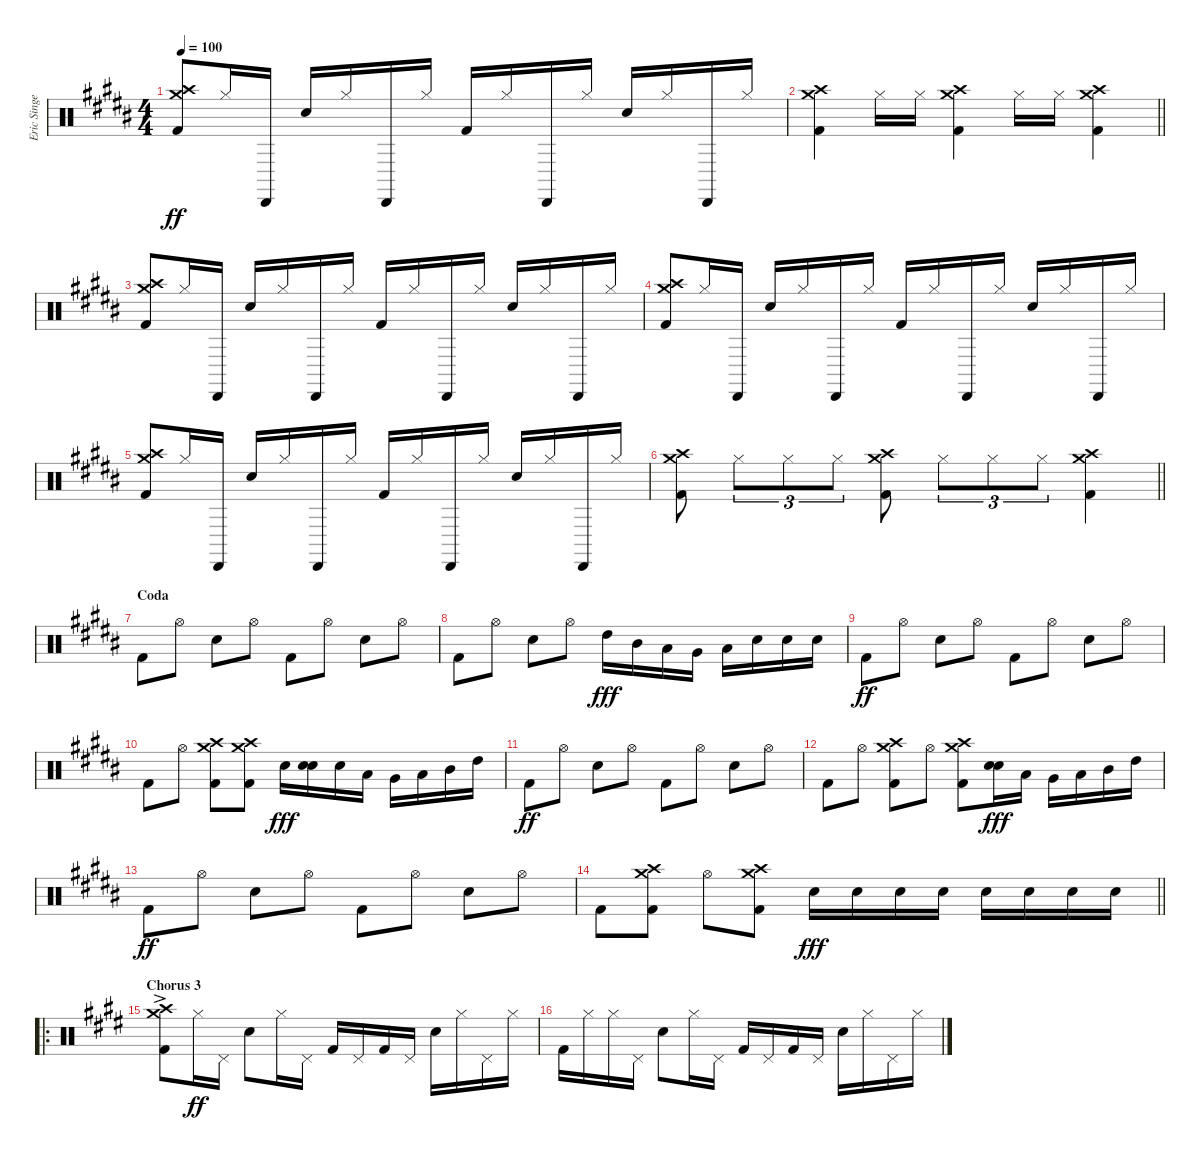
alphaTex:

\track ("Eric Singer" "Eric Singe") {instrument percussion}
\staff {score}
\articulation defaults
\ts (4 4)
\tempo 100
\clef neutral
\ks b
("Crash medium (hit)" "Crash high (hit)" "Kick (hit) 2").8{dy ff} "Hi-Hat (closed)".16 "Cabasa (hit)".16 "Snare (hit) 2".16 "Hi-Hat (closed)".16 "Cabasa (hit)".16 "Hi-Hat (closed)".16 "Kick (hit) 2".16 "Hi-Hat (closed)".16 "Cabasa (hit)".16 "Hi-Hat (closed)".16 "Snare (hit) 2".16 "Hi-Hat (closed)".16 "Cabasa (hit)".16 "Hi-Hat (closed)".16 |
\barLineRight lightlight
("Crash medium (hit)" "Crash high (hit)" "Kick (hit) 2").4 "Hi-Hat (closed)".16 "Hi-Hat (closed)".16 ("Crash medium (hit)" "Crash high (hit)" "Kick (hit) 2").4 "Hi-Hat (closed)".16 "Hi-Hat (closed)".16 ("Crash medium (hit)" "Crash high (hit)" "Kick (hit) 2").4 |
("Crash medium (hit)" "Crash high (hit)" "Kick (hit) 2").8 "Hi-Hat (closed)".16 "Cabasa (hit)".16 "Snare (hit) 2".16 "Hi-Hat (closed)".16 "Cabasa (hit)".16 "Hi-Hat (closed)".16 "Kick (hit) 2".16 "Hi-Hat (closed)".16 "Cabasa (hit)".16 "Hi-Hat (closed)".16 "Snare (hit) 2".16 "Hi-Hat (closed)".16 "Cabasa (hit)".16 "Hi-Hat (closed)".16 |
("Crash medium (hit)" "Crash high (hit)" "Kick (hit) 2").8 "Hi-Hat (closed)".16 "Cabasa (hit)".16 "Snare (hit) 2".16 "Hi-Hat (closed)".16 "Cabasa (hit)".16 "Hi-Hat (closed)".16 "Kick (hit) 2".16 "Hi-Hat (closed)".16 "Cabasa (hit)".16 "Hi-Hat (closed)".16 "Snare (hit) 2".16 "Hi-Hat (closed)".16 "Cabasa (hit)".16 "Hi-Hat (closed)".16 |
("Crash medium (hit)" "Crash high (hit)" "Kick (hit) 2").8 "Hi-Hat (closed)".16 "Cabasa (hit)".16 "Snare (hit) 2".16 "Hi-Hat (closed)".16 "Cabasa (hit)".16 "Hi-Hat (closed)".16 "Kick (hit) 2".16 "Hi-Hat (closed)".16 "Cabasa (hit)".16 "Hi-Hat (closed)".16 "Snare (hit) 2".16 "Hi-Hat (closed)".16 "Cabasa (hit)".16 "Hi-Hat (closed)".16 |
\barLineRight lightlight
("Crash medium (hit)" "Crash high (hit)" "Kick (hit) 2").8 "Hi-Hat (closed)".8{tu (3 2)} "Hi-Hat (closed)".8{tu (3 2)} "Hi-Hat (closed)".8{tu (3 2)} ("Crash medium (hit)" "Crash high (hit)" "Kick (hit) 2").8 "Hi-Hat (closed)".8{tu (3 2)} "Hi-Hat (closed)".8{tu (3 2)} "Hi-Hat (closed)".8{tu (3 2)} ("Crash medium (hit)" "Crash high (hit)" "Kick (hit) 2").4 |
\section ("" "Coda")
"Kick (hit) 2".8 "Hi-Hat (open)".8 "Snare (hit) 2".8 "Hi-Hat (open)".8 "Kick (hit) 2".8 "Hi-Hat (open)".8 "Snare (hit) 2".8 "Hi-Hat (open)".8 |
"Kick (hit) 2".8 "Hi-Hat (open)".8 "Snare (hit) 2".8 "Hi-Hat (open)".8 "High Tom (hit)".16{dy fff} "Mid Tom (hit)".16 "Low Tom (hit)".16 "Very Low Tom (hit)".16 "Low Floor Tom (hit)".16 "Snare (hit) 2".16 "Snare (hit) 2".16 "Snare (hit) 2".16 |
"Kick (hit) 2".8{dy ff} "Hi-Hat (open)".8 "Snare (hit) 2".8 "Hi-Hat (open)".8 "Kick (hit) 2".8 "Hi-Hat (open)".8 "Snare (hit) 2".8 "Hi-Hat (open)".8 |
"Kick (hit) 2".8 "Hi-Hat (open)".8 ("Crash medium (hit)" "Crash high (hit)" "Kick (hit) 2").8 ("Crash medium (hit)" "Crash high (hit)" "Kick (hit) 2").8 "Snare (hit) 2".16{dy fff} ("Electric Snare (hit)" "Snare (hit) 2").16 "Snare (hit) 2".16 "Low Floor Tom (hit)".16 "Very Low Tom (hit)".16 "Low Tom (hit)".16 "Mid Tom (hit)".16 "High Tom (hit)".16 |
"Kick (hit) 2".8{dy ff} "Hi-Hat (open)".8 "Snare (hit) 2".8 "Hi-Hat (open)".8 "Kick (hit) 2".8 "Hi-Hat (open)".8 "Snare (hit) 2".8 "Hi-Hat (open)".8 |
"Kick (hit) 2".8 "Hi-Hat (open)".8 ("Crash medium (hit)" "Crash high (hit)" "Kick (hit) 2").8 "Hi-Hat (open)".8 ("Crash medium (hit)" "Crash high (hit)" "Kick (hit) 2").8 ("Electric Snare (hit)" "Snare (hit) 2").16{dy fff} "Low Floor Tom (hit)".16 "Very Low Tom (hit)".16 "Low Tom (hit)".16 "Mid Tom (hit)".16 "High Tom (hit)".16 |
"Kick (hit) 2".8{dy ff} "Hi-Hat (open)".8 "Snare (hit) 2".8 "Hi-Hat (open)".8 "Kick (hit) 2".8 "Hi-Hat (open)".8 "Snare (hit) 2".8 "Hi-Hat (open)".8 |
\barLineRight lightlight "Kick (hit) 2".8
("Crash medium (hit)" "Crash high (hit)" "Kick (hit) 2").8 "Hi-Hat (open)".8 ("Crash medium (hit)" "Crash high (hit)" "Kick (hit) 2").8 "Snare (hit) 2".16{dy fff} "Snare (hit) 2".16 "Snare (hit) 2".16 "Snare (hit) 2".16 "Snare (hit) 2".16 "Snare (hit) 2".16 "Snare (hit) 2".16 "Snare (hit) 2".16 |
\ro
\section ("" "Chorus 3")
\ks e
("Crash medium (hit)"{ac} "Crash high (hit)"{ac} "Kick (hit) 2"{ac}).8 "Hi-Hat (closed)".16{dy ff} "Pedal Hi-Hat (hit)".16 "Snare (hit) 2".8 "Hi-Hat (closed)".16 "Pedal Hi-Hat (hit)".16 "Kick (hit) 2".16 "Pedal Hi-Hat (hit)".16 "Kick (hit) 2".16 "Pedal Hi-Hat (hit)".16 "Snare (hit) 2".16 "Hi-Hat (closed)".16 "Pedal Hi-Hat (hit)".16 "Hi-Hat (closed)".16 |
"Kick (hit) 2".16 "Hi-Hat (closed)".16 "Hi-Hat (closed)".16 "Pedal Hi-Hat (hit)".16 "Snare (hit) 2".8 "Hi-Hat (closed)".16 "Pedal Hi-Hat (hit)".16 "Kick (hit) 2".16 "Pedal Hi-Hat (hit)".16 "Kick (hit) 2".16 "Pedal Hi-Hat (hit)".16 "Snare (hit) 2".16 "Hi-Hat (closed)".16 "Pedal Hi-Hat (hit)".16 "Hi-Hat (closed)".16
